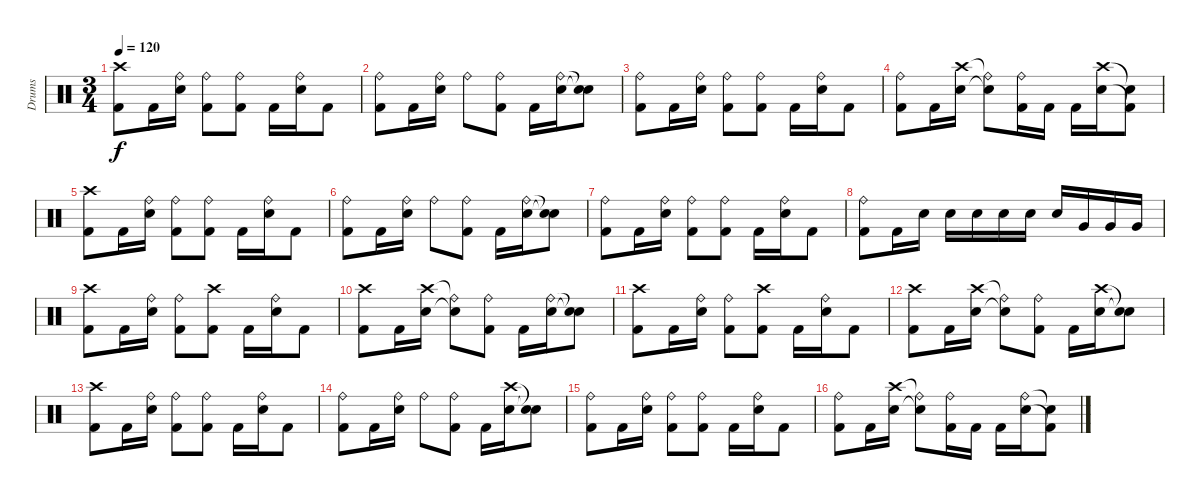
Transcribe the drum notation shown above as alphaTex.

\track ("Drums" "Drums") {instrument percussion}
\staff {score}
\articulation defaults
\ts (3 4)
\tempo 120
\clef neutral
\ks c
("Crash high (hit)" "Kick (hit) 2").8{dy f} "Kick (hit) 2".16 ("Ride (bell)" "Electric Snare (hit)").16 ("Ride (bell)" "Kick (hit) 2").8 ("Ride (bell)" "Kick (hit) 2").8 "Kick (hit) 2".16 ("Ride (bell)" "Electric Snare (hit)").16 "Kick (hit) 2".8 |
("Ride (bell)" "Kick (hit) 2").8 "Kick (hit) 2".16 ("Ride (bell)" "Electric Snare (hit)").16 "Ride (bell)".8 ("Ride (bell)" "Kick (hit) 2").8 "Kick (hit) 2".16 ("Ride (bell)" "Electric Snare (hit)").16 ("Snare (hit)"{t} "Snare (hit)"{t}).8 |
("Ride (bell)" "Kick (hit) 2").8 "Kick (hit) 2".16 ("Ride (bell)" "Electric Snare (hit)").16 ("Ride (bell)" "Kick (hit) 2").8 ("Ride (bell)" "Kick (hit) 2").8 "Kick (hit) 2".16 ("Ride (bell)" "Electric Snare (hit)").16 "Kick (hit) 2".8 |
("Ride (bell)" "Kick (hit) 2").8 "Kick (hit) 2".16 ("Crash high (hit)" "Electric Snare (hit)").16 ("Ride (bell)"{t} "Snare (hit)"{t}).8 ("Ride (bell)" "Kick (hit) 2").16 "Kick (hit) 2".16 "Kick (hit) 2".16 ("Crash high (hit)" "Electric Snare (hit)").16 ("Snare (hit)"{t} "Kick (hit) 2"{t}).8 |
("Crash high (hit)" "Kick (hit) 2").8 "Kick (hit) 2".16 ("Ride (bell)" "Electric Snare (hit)").16 ("Ride (bell)" "Kick (hit) 2").8 ("Ride (bell)" "Kick (hit) 2").8 "Kick (hit) 2".16 ("Ride (bell)" "Electric Snare (hit)").16 "Kick (hit) 2".8 |
("Ride (bell)" "Kick (hit) 2").8 "Kick (hit) 2".16 ("Ride (bell)" "Electric Snare (hit)").16 "Ride (bell)".8 ("Ride (bell)" "Kick (hit) 2").8 "Kick (hit) 2".16 ("Ride (bell)" "Electric Snare (hit)").16 ("Snare (hit)"{t} "Snare (hit)"{t}).8 |
("Ride (bell)" "Kick (hit) 2").8 "Kick (hit) 2".16 ("Ride (bell)" "Electric Snare (hit)").16 ("Ride (bell)" "Kick (hit) 2").8 ("Ride (bell)" "Kick (hit) 2").8 "Kick (hit) 2".16 ("Ride (bell)" "Electric Snare (hit)").16 "Kick (hit) 2".8 |
("Ride (bell)" "Kick (hit) 2").8 "Kick (hit) 2".16 "Electric Snare (hit)".16 "Electric Snare (hit)".16 "Electric Snare (hit)".16 "Electric Snare (hit)".16 "Electric Snare (hit)".16 "Electric Snare (hit)".16 "Very Low Tom (hit)".16 "Very Low Tom (hit)".16 "Very Low Tom (hit)".16 |
("Crash high (hit)" "Kick (hit) 2").8 "Kick (hit) 2".16 ("Ride (bell)" "Electric Snare (hit)").16 ("Ride (bell)" "Kick (hit) 2").8 ("Crash high (hit)" "Kick (hit) 2").8 "Kick (hit) 2".16 ("Ride (bell)" "Electric Snare (hit)").16 "Kick (hit) 2".8 |
("Crash high (hit)" "Kick (hit) 2").8 "Kick (hit) 2".16 ("Crash high (hit)" "Electric Snare (hit)").16 ("Ride (bell)"{t} "Snare (hit)"{t}).8 ("Ride (bell)" "Kick (hit) 2").8 "Kick (hit) 2".16 ("Ride (bell)" "Electric Snare (hit)").16 ("Snare (hit)"{t} "Snare (hit)"{t}).8 |
("Crash high (hit)" "Kick (hit) 2").8 "Kick (hit) 2".16 ("Ride (bell)" "Electric Snare (hit)").16 ("Ride (bell)" "Kick (hit) 2").8 ("Crash high (hit)" "Kick (hit) 2").8 "Kick (hit) 2".16 ("Ride (bell)" "Electric Snare (hit)").16 "Kick (hit) 2".8 |
("Crash high (hit)" "Kick (hit) 2").8 "Kick (hit) 2".16 ("Crash high (hit)" "Electric Snare (hit)").16 ("Ride (bell)"{t} "Snare (hit)"{t}).8 ("Ride (bell)" "Kick (hit) 2").8 "Kick (hit) 2".16 ("Crash high (hit)" "Electric Snare (hit)").16 ("Snare (hit)"{t} "Snare (hit)"{t}).8 |
("Crash high (hit)" "Kick (hit) 2").8 "Kick (hit) 2".16 ("Ride (bell)" "Electric Snare (hit)").16 ("Ride (bell)" "Kick (hit) 2").8 ("Ride (bell)" "Kick (hit) 2").8 "Kick (hit) 2".16 ("Ride (bell)" "Electric Snare (hit)").16 "Kick (hit) 2".8 |
("Ride (bell)" "Kick (hit) 2").8 "Kick (hit) 2".16 ("Ride (bell)" "Electric Snare (hit)").16 "Ride (bell)".8 ("Ride (bell)" "Kick (hit) 2").8 "Kick (hit) 2".16 ("Crash high (hit)" "Electric Snare (hit)").16 ("Snare (hit)"{t} "Snare (hit)"{t}).8 |
("Ride (bell)" "Kick (hit) 2").8 "Kick (hit) 2".16 ("Ride (bell)" "Electric Snare (hit)").16 ("Ride (bell)" "Kick (hit) 2").8 ("Ride (bell)" "Kick (hit) 2").8 "Kick (hit) 2".16 ("Ride (bell)" "Electric Snare (hit)").16 "Kick (hit) 2".8 |
("Ride (bell)" "Kick (hit) 2").8 "Kick (hit) 2".16 ("Crash high (hit)" "Electric Snare (hit)").16 ("Ride (bell)"{t} "Snare (hit)"{t}).8 ("Ride (bell)" "Kick (hit) 2").16 "Kick (hit) 2".16 "Kick (hit) 2".16 ("Ride (bell)" "Electric Snare (hit)").16 ("Snare (hit)"{t} "Kick (hit) 2"{t}).8
